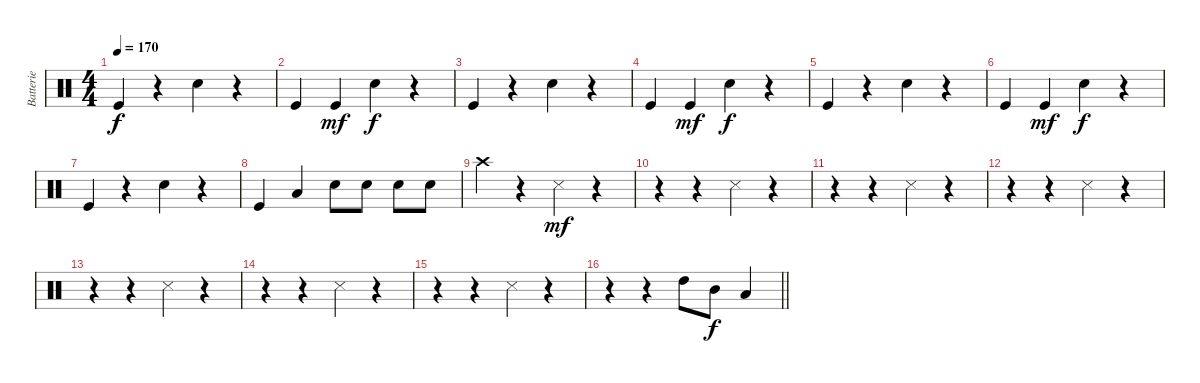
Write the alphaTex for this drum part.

\track ("Batterie" "Batterie") {instrument percussion}
\staff {score}
\articulation defaults
\ts (4 4)
\tempo 170
\clef neutral
\ks c "Kick (hit)".4{dy f}
r.4 "Snare (hit) 2".4 r.4 |
"Kick (hit)".4 "Kick (hit)".4{dy mf} "Snare (hit) 2".4{dy f} r.4 |
"Kick (hit)".4 r.4 "Snare (hit) 2".4 r.4 |
"Kick (hit)".4 "Kick (hit)".4{dy mf} "Snare (hit) 2".4{dy f} r.4 |
"Kick (hit)".4 r.4 "Snare (hit) 2".4 r.4 |
"Kick (hit)".4 "Kick (hit)".4{dy mf} "Snare (hit) 2".4{dy f} r.4 |
"Kick (hit)".4 r.4 "Snare (hit) 2".4 r.4 |
"Kick (hit)".4 "Low Tom (hit)".4 "Snare (hit) 2".8 "Snare (hit) 2".8 "Snare (hit) 2".8 "Snare (hit) 2".8 |
"Crash high (hit)".4 r.4 "Snare (side stick) 3".4{dy mf} r.4 |
r.4 r.4 "Snare (side stick) 3".4 r.4 |
r.4 r.4 "Snare (side stick) 3".4 r.4 |
r.4 r.4 "Snare (side stick) 3".4 r.4 |
r.4 r.4 "Snare (side stick) 3".4 r.4 |
r.4 r.4 "Snare (side stick) 3".4 r.4 |
r.4 r.4 "Snare (side stick) 3".4 r.4 |
\barLineRight lightlight
r.4 r.4 "High Tom (hit)".8 "Mid Tom (hit)".8{dy f} "Low Tom (hit)".4
